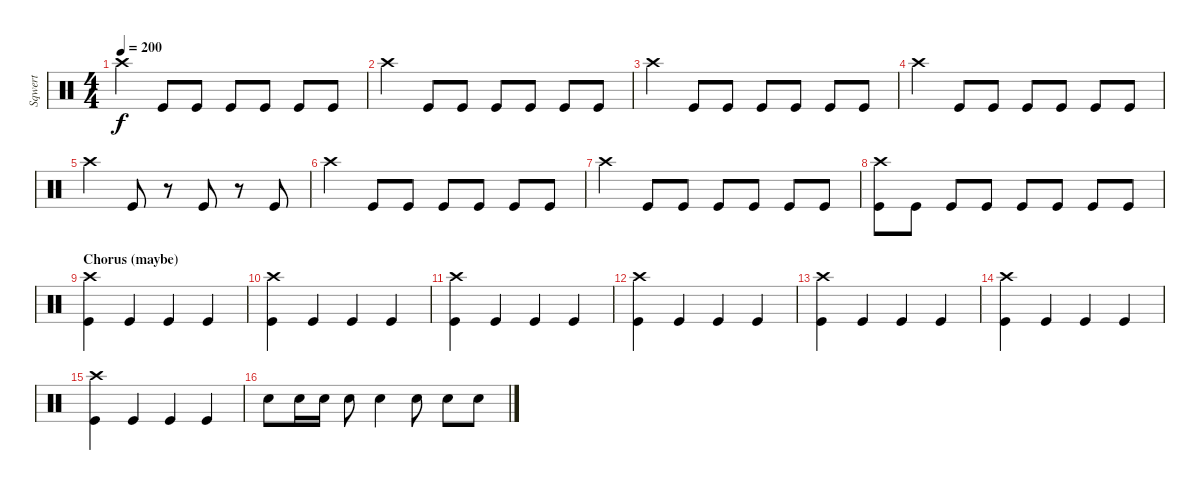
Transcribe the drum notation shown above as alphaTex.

\track ("Sqwert" "Sqwert") {instrument percussion}
\staff {score}
\articulation defaults
\ts (4 4)
\tempo 200
\clef neutral
\ks c "Crash high (hit)".4{dy f} "Kick (hit)".8 "Kick (hit)".8 "Kick (hit)".8 "Kick (hit)".8 "Kick (hit)".8 "Kick (hit)".8
|
"Crash high (hit)".4 "Kick (hit)".8 "Kick (hit)".8 "Kick (hit)".8 "Kick (hit)".8 "Kick (hit)".8 "Kick (hit)".8 |
"Crash high (hit)".4 "Kick (hit)".8 "Kick (hit)".8 "Kick (hit)".8 "Kick (hit)".8 "Kick (hit)".8 "Kick (hit)".8 |
"Crash high (hit)".4 "Kick (hit)".8 "Kick (hit)".8 "Kick (hit)".8 "Kick (hit)".8 "Kick (hit)".8 "Kick (hit)".8 |
"Crash high (hit)".4 "Kick (hit)".8 r.8 "Kick (hit)".8 r.8 "Kick (hit)".8 |
"Crash high (hit)".4 "Kick (hit)".8 "Kick (hit)".8 "Kick (hit)".8 "Kick (hit)".8 "Kick (hit)".8 "Kick (hit)".8 |
"Crash high (hit)".4 "Kick (hit)".8 "Kick (hit)".8 "Kick (hit)".8 "Kick (hit)".8 "Kick (hit)".8 "Kick (hit)".8 |
("Crash high (hit)" "Kick (hit)").8 "Kick (hit)".8 "Kick (hit)".8 "Kick (hit)".8 "Kick (hit)".8 "Kick (hit)".8 "Kick (hit)".8 "Kick (hit)".8 |
\section ("" "Chorus (maybe)")
("Crash high (hit)" "Kick (hit)").4 "Kick (hit)".4 "Kick (hit)".4 "Kick (hit)".4 |
("Crash high (hit)" "Kick (hit)").4 "Kick (hit)".4 "Kick (hit)".4 "Kick (hit)".4 |
("Crash high (hit)" "Kick (hit)").4 "Kick (hit)".4 "Kick (hit)".4 "Kick (hit)".4 |
("Crash high (hit)" "Kick (hit)").4 "Kick (hit)".4 "Kick (hit)".4 "Kick (hit)".4 |
("Crash high (hit)" "Kick (hit)").4 "Kick (hit)".4 "Kick (hit)".4 "Kick (hit)".4 |
("Crash high (hit)" "Kick (hit)").4 "Kick (hit)".4 "Kick (hit)".4 "Kick (hit)".4 |
("Crash high (hit)" "Kick (hit)").4 "Kick (hit)".4 "Kick (hit)".4 "Kick (hit)".4 |
"Snare (hit) 2".8 "Snare (hit) 2".16 "Snare (hit) 2".16 "Snare (hit) 2".8 "Snare (hit) 2".4 "Snare (hit) 2".8 "Snare (hit) 2".8 "Snare (hit) 2".8
